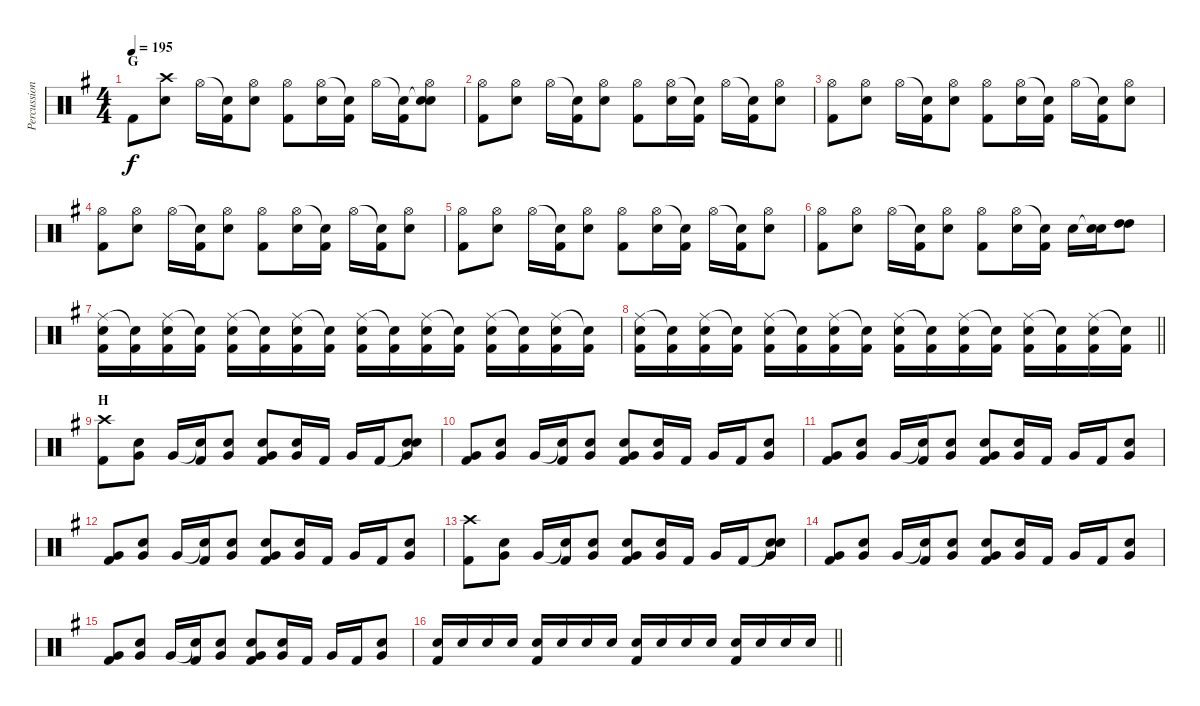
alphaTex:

\track ("Percussion" "Percussion") {instrument percussion}
\staff {score}
\articulation defaults
\ts (4 4)
\section ("" "G")
\tempo 195
\clef neutral
\ks g "Kick (hit) 2".8{dy f}
("Crash high (hit)" "Electric Snare (hit)").8 "Hi-Hat (open)".16 ("Snare (hit)"{t} "Kick (hit) 2").16 ("Hi-Hat (open)" "Electric Snare (hit)").8 ("Hi-Hat (open)" "Kick (hit) 2").8 ("Hi-Hat (open)" "Electric Snare (hit)").16 ("Snare (hit)"{t} "Kick (hit) 2").16 "Hi-Hat (open)".16 ("Snare (hit)"{t} "Kick (hit) 2").16 ("Snare (hit)"{t} "Hi-Hat (open)" "Electric Snare (hit)").8 |
("Hi-Hat (open)" "Kick (hit) 2").8 ("Hi-Hat (open)" "Electric Snare (hit)").8 "Hi-Hat (open)".16 ("Snare (hit)"{t} "Kick (hit) 2").16 ("Hi-Hat (open)" "Electric Snare (hit)").8 ("Hi-Hat (open)" "Kick (hit) 2").8 ("Hi-Hat (open)" "Electric Snare (hit)").16 ("Snare (hit)"{t} "Kick (hit) 2").16 "Hi-Hat (open)".16 ("Snare (hit)"{t} "Kick (hit) 2").16 ("Hi-Hat (open)" "Electric Snare (hit)").8 |
("Hi-Hat (open)" "Kick (hit) 2").8 ("Hi-Hat (open)" "Electric Snare (hit)").8 "Hi-Hat (open)".16 ("Snare (hit)"{t} "Kick (hit) 2").16 ("Hi-Hat (open)" "Electric Snare (hit)").8 ("Hi-Hat (open)" "Kick (hit) 2").8 ("Hi-Hat (open)" "Electric Snare (hit)").16 ("Snare (hit)"{t} "Kick (hit) 2").16 "Hi-Hat (open)".16 ("Snare (hit)"{t} "Kick (hit) 2").16 ("Hi-Hat (open)" "Electric Snare (hit)").8 |
("Hi-Hat (open)" "Kick (hit) 2").8 ("Hi-Hat (open)" "Electric Snare (hit)").8 "Hi-Hat (open)".16 ("Snare (hit)"{t} "Kick (hit) 2").16 ("Hi-Hat (open)" "Electric Snare (hit)").8 ("Hi-Hat (open)" "Kick (hit) 2").8 ("Hi-Hat (open)" "Electric Snare (hit)").16 ("Snare (hit)"{t} "Kick (hit) 2").16 "Hi-Hat (open)".16 ("Snare (hit)"{t} "Kick (hit) 2").16 ("Hi-Hat (open)" "Electric Snare (hit)").8 |
("Hi-Hat (open)" "Kick (hit) 2").8 ("Hi-Hat (open)" "Electric Snare (hit)").8 "Hi-Hat (open)".16 ("Snare (hit)"{t} "Kick (hit) 2").16 ("Hi-Hat (open)" "Electric Snare (hit)").8 ("Hi-Hat (open)" "Kick (hit) 2").8 ("Hi-Hat (open)" "Electric Snare (hit)").16 ("Snare (hit)"{t} "Kick (hit) 2").16 "Hi-Hat (open)".16 ("Snare (hit)"{t} "Kick (hit) 2").16 ("Hi-Hat (open)" "Electric Snare (hit)").8 |
("Hi-Hat (open)" "Kick (hit) 2").8 ("Hi-Hat (open)" "Electric Snare (hit)").8 "Hi-Hat (open)".16 ("Snare (hit)"{t} "Kick (hit) 2").16 ("Hi-Hat (open)" "Electric Snare (hit)").8 ("Hi-Hat (open)" "Kick (hit) 2").8 ("Hi-Hat (open)" "Electric Snare (hit)").16 ("Snare (hit)"{t} "Kick (hit) 2").16 "Electric Snare (hit)".16 ("Snare (hit)"{t} "Electric Snare (hit)").16 ("High Tom (hit)" "High Tom (hit)").8 |
("Ride (middle)" "Electric Snare (hit)" "Kick (hit) 2").16 ("Snare (hit)"{t} "Kick (hit) 2").16 ("Ride (middle)" "Electric Snare (hit)" "Kick (hit) 2").16 ("Snare (hit)"{t} "Kick (hit) 2").16 ("Ride (middle)" "Electric Snare (hit)" "Kick (hit) 2").16 ("Snare (hit)"{t} "Kick (hit) 2").16 ("Ride (middle)" "Electric Snare (hit)" "Kick (hit) 2").16 ("Snare (hit)"{t} "Kick (hit) 2").16 ("Ride (middle)" "Electric Snare (hit)" "Kick (hit) 2").16 ("Snare (hit)"{t} "Kick (hit) 2").16 ("Ride (middle)" "Electric Snare (hit)" "Kick (hit) 2").16 ("Snare (hit)"{t} "Kick (hit) 2").16 ("Ride (middle)" "Electric Snare (hit)" "Kick (hit) 2").16 ("Snare (hit)"{t} "Kick (hit) 2").16 ("Ride (middle)" "Electric Snare (hit)" "Kick (hit) 2").16 ("Snare (hit)"{t} "Kick (hit) 2").16 |
\barLineRight lightlight
("Ride (middle)" "Electric Snare (hit)" "Kick (hit) 2").16 ("Snare (hit)"{t} "Kick (hit) 2").16 ("Ride (middle)" "Electric Snare (hit)" "Kick (hit) 2").16 ("Snare (hit)"{t} "Kick (hit) 2").16 ("Ride (middle)" "Electric Snare (hit)" "Kick (hit) 2").16 ("Snare (hit)"{t} "Kick (hit) 2").16 ("Ride (middle)" "Electric Snare (hit)" "Kick (hit) 2").16 ("Snare (hit)"{t} "Kick (hit) 2").16 ("Ride (middle)" "Electric Snare (hit)" "Kick (hit) 2").16 ("Snare (hit)"{t} "Kick (hit) 2").16 ("Ride (middle)" "Electric Snare (hit)" "Kick (hit) 2").16 ("Snare (hit)"{t} "Kick (hit) 2").16 ("Ride (middle)" "Electric Snare (hit)" "Kick (hit) 2").16 ("Snare (hit)"{t} "Kick (hit) 2").16 ("Ride (middle)" "Electric Snare (hit)" "Kick (hit) 2").16 ("Snare (hit)"{t} "Kick (hit) 2").16 |
\section ("" "H")
("Crash high (hit)" "Kick (hit) 2").8 ("Electric Snare (hit)" "Very Low Tom (hit)").8 "Very Low Tom (hit)".16 ("Snare (hit)"{t} "Kick (hit) 2").16 ("Electric Snare (hit)" "Very Low Tom (hit)").8 ("Electric Snare (hit)" "Very Low Tom (hit)" "Kick (hit) 2").8 ("Electric Snare (hit)" "Very Low Tom (hit)").16 "Kick (hit) 2".16 "Very Low Tom (hit)".16 "Kick (hit) 2".16 ("Snare (hit)"{t} "Electric Snare (hit)" "Very Low Tom (hit)").8 |
("Very Low Tom (hit)" "Kick (hit) 2").8 ("Electric Snare (hit)" "Very Low Tom (hit)").8 "Very Low Tom (hit)".16 ("Snare (hit)"{t} "Kick (hit) 2").16 ("Electric Snare (hit)" "Very Low Tom (hit)").8 ("Electric Snare (hit)" "Very Low Tom (hit)" "Kick (hit) 2").8 ("Electric Snare (hit)" "Very Low Tom (hit)").16 "Kick (hit) 2".16 "Very Low Tom (hit)".16 "Kick (hit) 2".16 ("Electric Snare (hit)" "Very Low Tom (hit)").8 |
("Very Low Tom (hit)" "Kick (hit) 2").8 ("Electric Snare (hit)" "Very Low Tom (hit)").8 "Very Low Tom (hit)".16 ("Snare (hit)"{t} "Kick (hit) 2").16 ("Electric Snare (hit)" "Very Low Tom (hit)").8 ("Electric Snare (hit)" "Very Low Tom (hit)" "Kick (hit) 2").8 ("Electric Snare (hit)" "Very Low Tom (hit)").16 "Kick (hit) 2".16 "Very Low Tom (hit)".16 "Kick (hit) 2".16 ("Electric Snare (hit)" "Very Low Tom (hit)").8 |
("Very Low Tom (hit)" "Kick (hit) 2").8 ("Electric Snare (hit)" "Very Low Tom (hit)").8 "Very Low Tom (hit)".16 ("Snare (hit)"{t} "Kick (hit) 2").16 ("Electric Snare (hit)" "Very Low Tom (hit)").8 ("Electric Snare (hit)" "Very Low Tom (hit)" "Kick (hit) 2").8 ("Electric Snare (hit)" "Very Low Tom (hit)").16 "Kick (hit) 2".16 "Very Low Tom (hit)".16 "Kick (hit) 2".16 ("Electric Snare (hit)" "Very Low Tom (hit)").8 |
("Crash high (hit)" "Kick (hit) 2").8 ("Electric Snare (hit)" "Very Low Tom (hit)").8 "Very Low Tom (hit)".16 ("Snare (hit)"{t} "Kick (hit) 2").16 ("Electric Snare (hit)" "Very Low Tom (hit)").8 ("Electric Snare (hit)" "Very Low Tom (hit)" "Kick (hit) 2").8 ("Electric Snare (hit)" "Very Low Tom (hit)").16 "Kick (hit) 2".16 "Very Low Tom (hit)".16 "Kick (hit) 2".16 ("Snare (hit)"{t} "Electric Snare (hit)" "Very Low Tom (hit)").8 |
("Very Low Tom (hit)" "Kick (hit) 2").8 ("Electric Snare (hit)" "Very Low Tom (hit)").8 "Very Low Tom (hit)".16 ("Snare (hit)"{t} "Kick (hit) 2").16 ("Electric Snare (hit)" "Very Low Tom (hit)").8 ("Electric Snare (hit)" "Very Low Tom (hit)" "Kick (hit) 2").8 ("Electric Snare (hit)" "Very Low Tom (hit)").16 "Kick (hit) 2".16 "Very Low Tom (hit)".16 "Kick (hit) 2".16 ("Electric Snare (hit)" "Very Low Tom (hit)").8 |
("Very Low Tom (hit)" "Kick (hit) 2").8 ("Electric Snare (hit)" "Very Low Tom (hit)").8 "Very Low Tom (hit)".16 ("Snare (hit)"{t} "Kick (hit) 2").16 ("Electric Snare (hit)" "Very Low Tom (hit)").8 ("Electric Snare (hit)" "Very Low Tom (hit)" "Kick (hit) 2").8 ("Electric Snare (hit)" "Very Low Tom (hit)").16 "Kick (hit) 2".16 "Very Low Tom (hit)".16 "Kick (hit) 2".16 ("Electric Snare (hit)" "Very Low Tom (hit)").8 |
\barLineRight lightlight
("Electric Snare (hit)" "Kick (hit) 2").16 "Electric Snare (hit)".16 "Electric Snare (hit)".16 "Electric Snare (hit)".16 ("Electric Snare (hit)" "Kick (hit) 2").16 "Electric Snare (hit)".16 "Electric Snare (hit)".16 "Electric Snare (hit)".16 ("Electric Snare (hit)" "Kick (hit) 2").16 "Electric Snare (hit)".16 "Electric Snare (hit)".16 "Electric Snare (hit)".16 ("Electric Snare (hit)" "Kick (hit) 2").16 "Electric Snare (hit)".16 "Electric Snare (hit)".16 "Electric Snare (hit)".16
